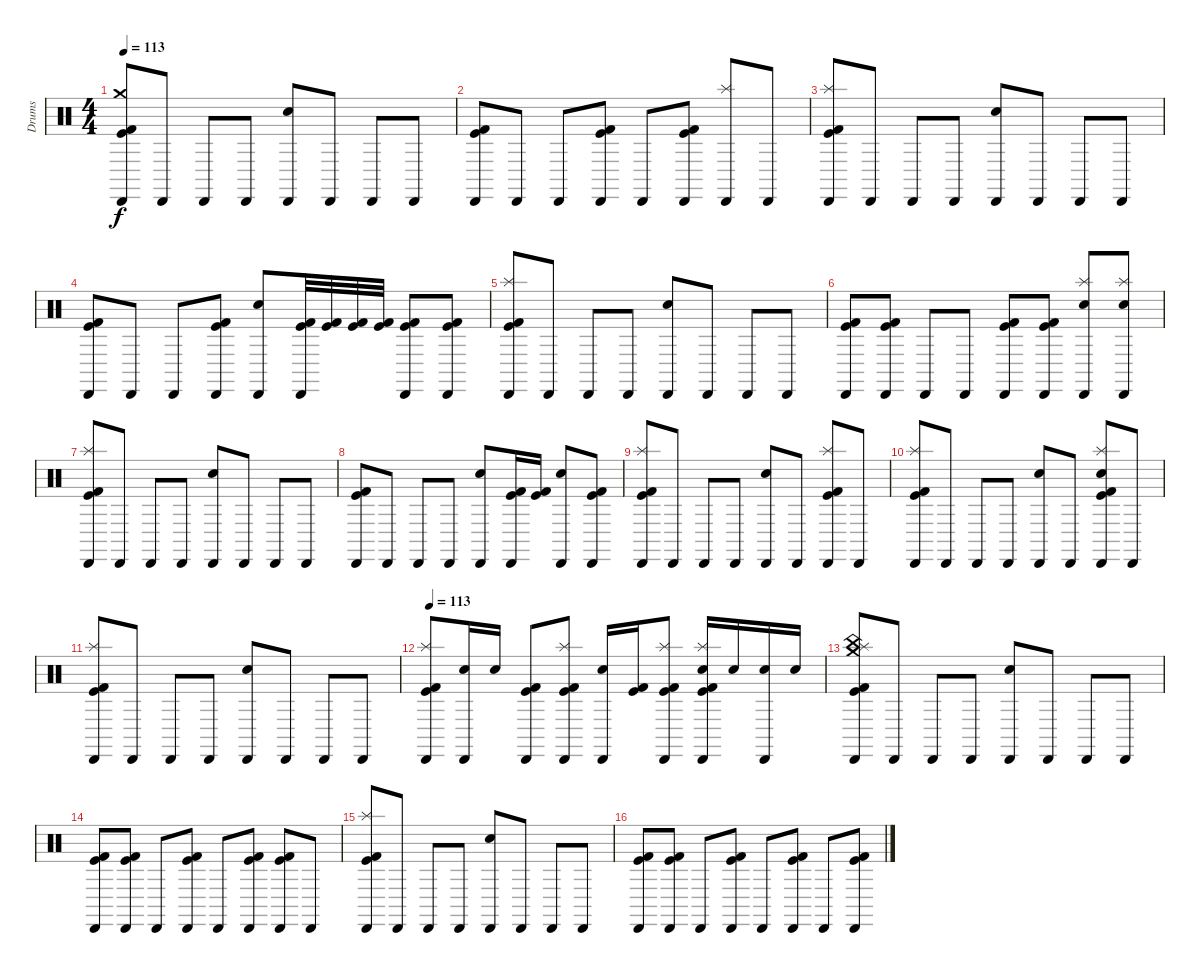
\track ("Drums" "Drums") {instrument percussion}
\staff {score}
\articulation defaults
\ts (4 4)
\tempo 113
\clef neutral
\ks c
("Crash medium (hit)" "Kick (hit)" "Kick (hit) 2" "Cabasa (hit)").8{dy f} "Cabasa (hit)".8 "Cabasa (hit)".8 "Cabasa (hit)".8 ("Electric Snare (hit)" "Cabasa (hit)").8 "Cabasa (hit)".8 "Cabasa (hit)".8 "Cabasa (hit)".8 |
("Kick (hit)" "Kick (hit) 2" "Cabasa (hit)").8 "Cabasa (hit)".8 "Cabasa (hit)".8 ("Kick (hit)" "Kick (hit) 2" "Cabasa (hit)").8 "Cabasa (hit)".8 ("Kick (hit)" "Kick (hit) 2" "Cabasa (hit)").8 ("Splash (hit)" "Cabasa (hit)").8 "Cabasa (hit)".8 |
("Splash (hit)" "Kick (hit) 2" "Kick (hit)" "Cabasa (hit)").8 "Cabasa (hit)".8 "Cabasa (hit)".8 "Cabasa (hit)".8 ("Electric Snare (hit)" "Cabasa (hit)").8 "Cabasa (hit)".8 "Cabasa (hit)".8 "Cabasa (hit)".8 |
("Kick (hit)" "Kick (hit) 2" "Cabasa (hit)").8 "Cabasa (hit)".8 "Cabasa (hit)".8 ("Kick (hit) 2" "Kick (hit)" "Cabasa (hit)").8 ("Electric Snare (hit)" "Cabasa (hit)").8 ("Kick (hit)" "Kick (hit) 2" "Cabasa (hit)").32 ("Kick (hit)" "Kick (hit) 2").32 ("Kick (hit)" "Kick (hit) 2").32 ("Kick (hit)" "Kick (hit) 2").32 ("Kick (hit)" "Kick (hit) 2" "Cabasa (hit)").8 ("Kick (hit)" "Kick (hit) 2" "Cabasa (hit)").8 |
("Splash (hit)" "Kick (hit)" "Kick (hit) 2" "Cabasa (hit)").8 "Cabasa (hit)".8 "Cabasa (hit)".8 "Cabasa (hit)".8 ("Electric Snare (hit)" "Cabasa (hit)").8 "Cabasa (hit)".8 "Cabasa (hit)".8 "Cabasa (hit)".8 |
("Kick (hit) 2" "Kick (hit)" "Cabasa (hit)").8 ("Cabasa (hit)" "Kick (hit) 2" "Kick (hit)").8 "Cabasa (hit)".8 "Cabasa (hit)".8 ("Cabasa (hit)" "Kick (hit)" "Kick (hit) 2").8 ("Kick (hit)" "Kick (hit) 2" "Cabasa (hit)").8 ("Splash (hit)" "Electric Snare (hit)" "Cabasa (hit)").8 ("Splash (hit)" "Electric Snare (hit)" "Cabasa (hit)").8 |
("Splash (hit)" "Kick (hit)" "Kick (hit) 2" "Cabasa (hit)").8 "Cabasa (hit)".8 "Cabasa (hit)".8 "Cabasa (hit)".8 ("Electric Snare (hit)" "Cabasa (hit)").8 "Cabasa (hit)".8 "Cabasa (hit)".8 "Cabasa (hit)".8 |
("Cabasa (hit)" "Kick (hit)" "Kick (hit) 2").8 "Cabasa (hit)".8 "Cabasa (hit)".8 "Cabasa (hit)".8 ("Cabasa (hit)" "Electric Snare (hit)").8 ("Kick (hit)" "Kick (hit) 2" "Cabasa (hit)").16 ("Kick (hit)" "Kick (hit) 2").16 ("Electric Snare (hit)" "Cabasa (hit)").8 ("Kick (hit)" "Kick (hit) 2" "Cabasa (hit)").8 |
("Splash (hit)" "Kick (hit)" "Kick (hit) 2" "Cabasa (hit)").8 "Cabasa (hit)".8 "Cabasa (hit)".8 "Cabasa (hit)".8 ("Electric Snare (hit)" "Cabasa (hit)").8 "Cabasa (hit)".8 ("Kick (hit) 2" "Kick (hit)" "Cabasa (hit)" "Splash (hit)").8 "Cabasa (hit)".8 |
("Kick (hit) 2" "Kick (hit)" "Cabasa (hit)" "Splash (hit)").8 "Cabasa (hit)".8 "Cabasa (hit)".8 "Cabasa (hit)".8 ("Electric Snare (hit)" "Cabasa (hit)").8 "Cabasa (hit)".8 ("Kick (hit) 2" "Kick (hit)" "Electric Snare (hit)" "Splash (hit)" "Cabasa (hit)").8 "Cabasa (hit)".8 |
("Kick (hit)" "Kick (hit) 2" "Cabasa (hit)" "Splash (hit)").8{volume 16 balance 8} "Cabasa (hit)".8 "Cabasa (hit)".8 "Cabasa (hit)".8 ("Electric Snare (hit)" "Cabasa (hit)").8 "Cabasa (hit)".8 "Cabasa (hit)".8 "Cabasa (hit)".8 |
\tempo 113
("Splash (hit)" "Kick (hit)" "Kick (hit) 2" "Cabasa (hit)").8{volume 16 balance 8} ("Electric Snare (hit)" "Cabasa (hit)").16 "Electric Snare (hit)".16 ("Kick (hit)" "Kick (hit) 2" "Cabasa (hit)").8 ("Splash (hit)" "Kick (hit)" "Kick (hit) 2" "Cabasa (hit)").8 ("Electric Snare (hit)" "Cabasa (hit)").16 ("Kick (hit) 2" "Kick (hit)").16 ("Splash (hit)" "Kick (hit) 2" "Kick (hit)" "Cabasa (hit)").8 ("Electric Snare (hit)" "Splash (hit)" "Kick (hit) 2" "Kick (hit)" "Cabasa (hit)").16 "Electric Snare (hit)".16 ("Electric Snare (hit)" "Cabasa (hit)").16 "Electric Snare (hit)".16 |
("Crash medium (hit)" "China (hit)" "Splash (hit)" "Kick (hit)" "Kick (hit) 2" "Cabasa (hit)").8{volume 16 balance 8} "Cabasa (hit)".8 "Cabasa (hit)".8 "Cabasa (hit)".8 ("Electric Snare (hit)" "Cabasa (hit)").8 "Cabasa (hit)".8 "Cabasa (hit)".8 "Cabasa (hit)".8 |
("Kick (hit)" "Kick (hit) 2" "Cabasa (hit)").8 ("Kick (hit)" "Kick (hit) 2" "Cabasa (hit)").8 "Cabasa (hit)".8 ("Kick (hit)" "Kick (hit) 2" "Cabasa (hit)").8 "Cabasa (hit)".8 ("Kick (hit)" "Kick (hit) 2" "Cabasa (hit)").8 ("Kick (hit)" "Kick (hit) 2" "Cabasa (hit)").8 "Cabasa (hit)".8 |
("Kick (hit)" "Kick (hit) 2" "Splash (hit)" "Cabasa (hit)").8 "Cabasa (hit)".8 "Cabasa (hit)".8 "Cabasa (hit)".8 ("Electric Snare (hit)" "Cabasa (hit)").8 "Cabasa (hit)".8 "Cabasa (hit)".8 "Cabasa (hit)".8 |
("Kick (hit)" "Kick (hit) 2" "Cabasa (hit)").8 ("Kick (hit)" "Kick (hit) 2" "Cabasa (hit)").8 "Cabasa (hit)".8 ("Kick (hit)" "Kick (hit) 2" "Cabasa (hit)").8 "Cabasa (hit)".8 ("Kick (hit)" "Kick (hit) 2" "Cabasa (hit)").8 "Cabasa (hit)".8 ("Kick (hit)" "Kick (hit) 2" "Cabasa (hit)").8
